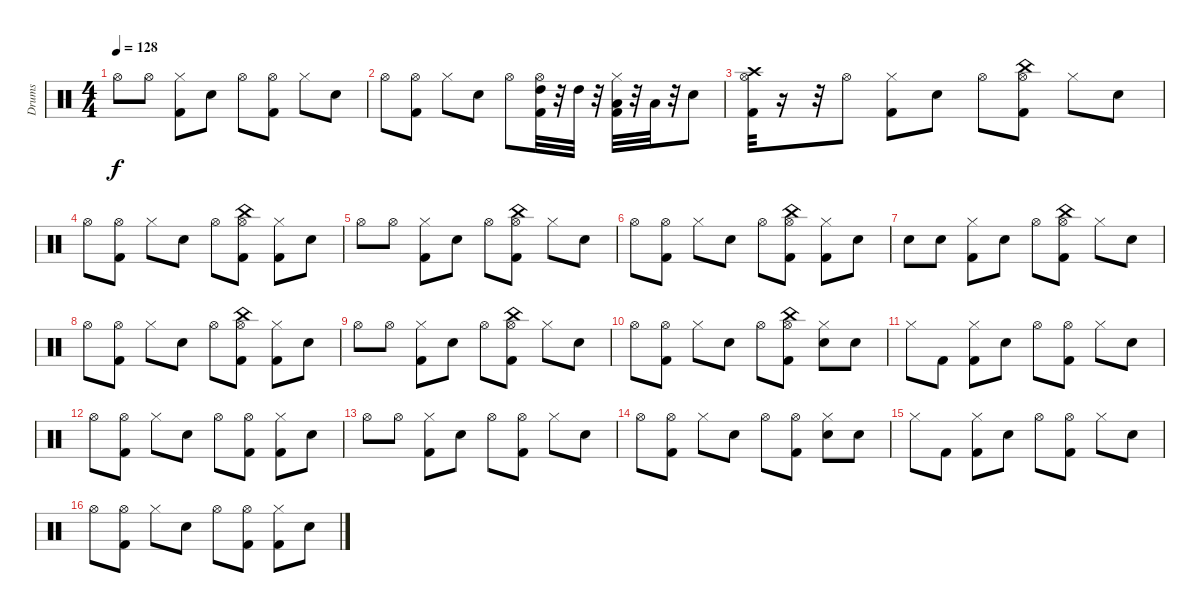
\track ("Drums" "Drums") {instrument percussion}
\staff {score}
\articulation defaults
\ts (4 4)
\tempo 128
\clef neutral
\ks c "Hi-Hat (open)".8{dy f} "Hi-Hat (open)".8
("Hi-Hat (closed)" "Kick (hit) 2").8 "Snare (hit) 2".8 "Hi-Hat (open)".8 ("Hi-Hat (open)" "Kick (hit) 2").8 "Hi-Hat (closed)".8 "Snare (hit) 2".8 |
"Hi-Hat (open)".8 ("Hi-Hat (open)" "Kick (hit) 2").8 "Hi-Hat (closed)".8 "Snare (hit) 2".8 "Hi-Hat (open)".8 ("Hi-Hat (open)" "High Tom (hit)" "Kick (hit) 2").32 r.32 "High Tom (hit)".32 r.32 ("Hi-Hat (closed)" "Low Tom (hit)" "Kick (hit) 2").32 r.32 "Low Tom (hit)".32 r.32 "Snare (hit) 2".8 |
("Hi-Hat (open)" "Crash high (hit)" "Kick (hit) 2").32 r.16 r.32 "Hi-Hat (open)".8 ("Hi-Hat (closed)" "Kick (hit) 2").8 "Snare (hit) 2".8 "Hi-Hat (open)".8 ("Hi-Hat (open)" "China (hit)" "Kick (hit) 2").8 "Hi-Hat (closed)".8 "Snare (hit) 2".8 |
"Hi-Hat (open)".8 ("Hi-Hat (open)" "Kick (hit) 2").8 "Hi-Hat (closed)".8 "Snare (hit) 2".8 "Hi-Hat (open)".8 ("Hi-Hat (open)" "China (hit)" "Kick (hit) 2").8 ("Hi-Hat (closed)" "Kick (hit) 2").8 "Snare (hit) 2".8 |
"Hi-Hat (open)".8 "Hi-Hat (open)".8 ("Hi-Hat (closed)" "Kick (hit) 2").8 "Snare (hit) 2".8 "Hi-Hat (open)".8 ("Hi-Hat (open)" "China (hit)" "Kick (hit) 2").8 "Hi-Hat (closed)".8 "Snare (hit) 2".8 |
"Hi-Hat (open)".8 ("Hi-Hat (open)" "Kick (hit) 2").8 "Hi-Hat (closed)".8 "Snare (hit) 2".8 "Hi-Hat (open)".8 ("Hi-Hat (open)" "China (hit)" "Kick (hit) 2").8 ("Hi-Hat (closed)" "Kick (hit) 2").8 "Snare (hit) 2".8 |
"Snare (hit) 2".8 "Snare (hit) 2".8 ("Hi-Hat (closed)" "Kick (hit) 2").8 "Snare (hit) 2".8 "Hi-Hat (open)".8 ("Hi-Hat (open)" "China (hit)" "Kick (hit) 2").8 "Hi-Hat (closed)".8 "Snare (hit) 2".8 |
"Hi-Hat (open)".8 ("Hi-Hat (open)" "Kick (hit) 2").8 "Hi-Hat (closed)".8 "Snare (hit) 2".8 "Hi-Hat (open)".8 ("Hi-Hat (open)" "China (hit)" "Kick (hit) 2").8 ("Hi-Hat (closed)" "Kick (hit) 2").8 "Snare (hit) 2".8 |
"Hi-Hat (open)".8 "Hi-Hat (open)".8 ("Hi-Hat (closed)" "Kick (hit) 2").8 "Snare (hit) 2".8 "Hi-Hat (open)".8 ("Hi-Hat (open)" "China (hit)" "Kick (hit) 2").8 "Hi-Hat (closed)".8 "Snare (hit) 2".8 |
"Hi-Hat (open)".8 ("Hi-Hat (open)" "Kick (hit) 2").8 "Hi-Hat (closed)".8 "Snare (hit) 2".8 "Hi-Hat (open)".8 ("Hi-Hat (open)" "China (hit)" "Kick (hit) 2").8 ("Hi-Hat (closed)" "Snare (hit) 2").8 "Snare (hit) 2".8 |
"Hi-Hat (closed)".8 "Kick (hit) 2".8 ("Hi-Hat (closed)" "Kick (hit) 2").8 "Snare (hit) 2".8 "Hi-Hat (open)".8 ("Hi-Hat (open)" "Kick (hit) 2").8 "Hi-Hat (closed)".8 "Snare (hit) 2".8 |
"Hi-Hat (open)".8 ("Hi-Hat (open)" "Kick (hit) 2").8 "Hi-Hat (closed)".8 "Snare (hit) 2".8 "Hi-Hat (open)".8 ("Hi-Hat (open)" "Kick (hit) 2").8 ("Hi-Hat (closed)" "Kick (hit) 2").8 "Snare (hit) 2".8 |
"Hi-Hat (open)".8 "Hi-Hat (open)".8 ("Hi-Hat (closed)" "Kick (hit) 2").8 "Snare (hit) 2".8 "Hi-Hat (open)".8 ("Hi-Hat (open)" "Kick (hit) 2").8 "Hi-Hat (closed)".8 "Snare (hit) 2".8 |
"Hi-Hat (open)".8 ("Hi-Hat (open)" "Kick (hit) 2").8 "Hi-Hat (closed)".8 "Snare (hit) 2".8 "Hi-Hat (open)".8 ("Hi-Hat (open)" "Kick (hit) 2").8 ("Hi-Hat (closed)" "Snare (hit) 2").8 "Snare (hit) 2".8 |
"Hi-Hat (closed)".8 "Kick (hit) 2".8 ("Hi-Hat (closed)" "Kick (hit) 2").8 "Snare (hit) 2".8 "Hi-Hat (open)".8 ("Hi-Hat (open)" "Kick (hit) 2").8 "Hi-Hat (closed)".8 "Snare (hit) 2".8 |
"Hi-Hat (open)".8 ("Hi-Hat (open)" "Kick (hit) 2").8 "Hi-Hat (closed)".8 "Snare (hit) 2".8 "Hi-Hat (open)".8 ("Hi-Hat (open)" "Kick (hit) 2").8 ("Hi-Hat (closed)" "Kick (hit) 2").8 "Snare (hit) 2".8
